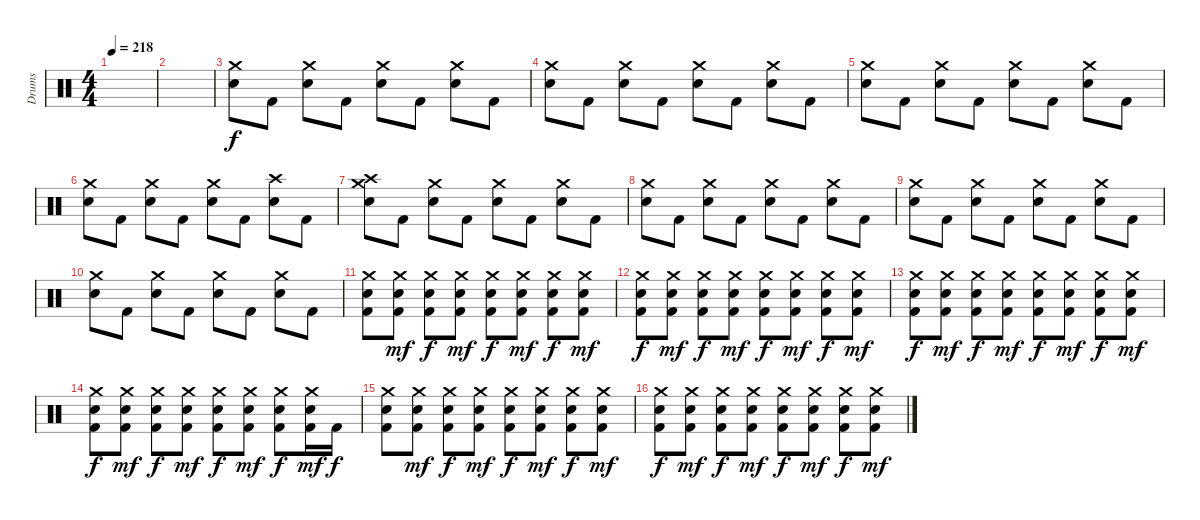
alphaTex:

\track ("Drums" "Drums") {instrument percussion}
\staff {score}
\articulation defaults
\ts (4 4)
\tempo 218
\clef neutral
\ks c
|
|
("Crash medium (hit)" "Electric Snare (hit)").8 "Kick (hit) 2".8 ("Crash medium (hit)" "Electric Snare (hit)").8 "Kick (hit) 2".8 ("Crash medium (hit)" "Electric Snare (hit)").8 "Kick (hit) 2".8 ("Crash medium (hit)" "Electric Snare (hit)").8 "Kick (hit) 2".8 |
("Crash medium (hit)" "Electric Snare (hit)").8 "Kick (hit) 2".8 ("Crash medium (hit)" "Electric Snare (hit)").8 "Kick (hit) 2".8 ("Crash medium (hit)" "Electric Snare (hit)").8 "Kick (hit) 2".8 ("Crash medium (hit)" "Electric Snare (hit)").8 "Kick (hit) 2".8 |
("Crash medium (hit)" "Electric Snare (hit)").8 "Kick (hit) 2".8 ("Crash medium (hit)" "Electric Snare (hit)").8 "Kick (hit) 2".8 ("Crash medium (hit)" "Electric Snare (hit)").8 "Kick (hit) 2".8 ("Crash medium (hit)" "Electric Snare (hit)").8 "Kick (hit) 2".8 |
("Crash medium (hit)" "Electric Snare (hit)").8 "Kick (hit) 2".8 ("Crash medium (hit)" "Electric Snare (hit)").8 "Kick (hit) 2".8 ("Crash medium (hit)" "Electric Snare (hit)").8 "Kick (hit) 2".8 ("Crash high (hit)" "Electric Snare (hit)").8 "Kick (hit) 2".8 |
("Crash medium (hit)" "Crash high (hit)" "Electric Snare (hit)").8 "Kick (hit) 2".8 ("Crash medium (hit)" "Electric Snare (hit)").8 "Kick (hit) 2".8 ("Crash medium (hit)" "Electric Snare (hit)").8 "Kick (hit) 2".8 ("Crash medium (hit)" "Electric Snare (hit)").8 "Kick (hit) 2".8 |
("Crash medium (hit)" "Electric Snare (hit)").8 "Kick (hit) 2".8 ("Crash medium (hit)" "Electric Snare (hit)").8 "Kick (hit) 2".8 ("Crash medium (hit)" "Electric Snare (hit)").8 "Kick (hit) 2".8 ("Crash medium (hit)" "Electric Snare (hit)").8 "Kick (hit) 2".8 |
("Crash medium (hit)" "Electric Snare (hit)").8 "Kick (hit) 2".8 ("Crash medium (hit)" "Electric Snare (hit)").8 "Kick (hit) 2".8 ("Crash medium (hit)" "Electric Snare (hit)").8 "Kick (hit) 2".8 ("Crash medium (hit)" "Electric Snare (hit)").8 "Kick (hit) 2".8 |
("Crash medium (hit)" "Electric Snare (hit)").8 "Kick (hit) 2".8 ("Crash medium (hit)" "Electric Snare (hit)").8 "Kick (hit) 2".8 ("Crash medium (hit)" "Electric Snare (hit)").8 "Kick (hit) 2".8 ("Crash medium (hit)" "Electric Snare (hit)").8 "Kick (hit) 2".8 |
("Crash medium (hit)" "Electric Snare (hit)" "Kick (hit) 2").8 ("Crash medium (hit)" "Electric Snare (hit)" "Kick (hit) 2").8{dy mf} ("Crash medium (hit)" "Electric Snare (hit)" "Kick (hit) 2").8{dy f} ("Crash medium (hit)" "Electric Snare (hit)" "Kick (hit) 2").8{dy mf} ("Crash medium (hit)" "Electric Snare (hit)" "Kick (hit) 2").8{dy f} ("Crash medium (hit)" "Electric Snare (hit)" "Kick (hit) 2").8{dy mf} ("Crash medium (hit)" "Electric Snare (hit)" "Kick (hit) 2").8{dy f} ("Crash medium (hit)" "Electric Snare (hit)" "Kick (hit) 2").8{dy mf} |
("Crash medium (hit)" "Electric Snare (hit)" "Kick (hit) 2").8{dy f} ("Crash medium (hit)" "Electric Snare (hit)" "Kick (hit) 2").8{dy mf} ("Crash medium (hit)" "Electric Snare (hit)" "Kick (hit) 2").8{dy f} ("Crash medium (hit)" "Electric Snare (hit)" "Kick (hit) 2").8{dy mf} ("Crash medium (hit)" "Electric Snare (hit)" "Kick (hit) 2").8{dy f} ("Crash medium (hit)" "Electric Snare (hit)" "Kick (hit) 2").8{dy mf} ("Crash medium (hit)" "Electric Snare (hit)" "Kick (hit) 2").8{dy f} ("Crash medium (hit)" "Electric Snare (hit)" "Kick (hit) 2").8{dy mf} |
("Crash medium (hit)" "Electric Snare (hit)" "Kick (hit) 2").8{dy f} ("Crash medium (hit)" "Electric Snare (hit)" "Kick (hit) 2").8{dy mf} ("Crash medium (hit)" "Electric Snare (hit)" "Kick (hit) 2").8{dy f} ("Crash medium (hit)" "Electric Snare (hit)" "Kick (hit) 2").8{dy mf} ("Crash medium (hit)" "Electric Snare (hit)" "Kick (hit) 2").8{dy f} ("Crash medium (hit)" "Electric Snare (hit)" "Kick (hit) 2").8{dy mf} ("Crash medium (hit)" "Electric Snare (hit)" "Kick (hit) 2").8{dy f} ("Crash medium (hit)" "Electric Snare (hit)" "Kick (hit) 2").8{dy mf} |
("Crash medium (hit)" "Electric Snare (hit)" "Kick (hit) 2").8{dy f} ("Crash medium (hit)" "Electric Snare (hit)" "Kick (hit) 2").8{dy mf} ("Crash medium (hit)" "Electric Snare (hit)" "Kick (hit) 2").8{dy f} ("Crash medium (hit)" "Electric Snare (hit)" "Kick (hit) 2").8{dy mf} ("Crash medium (hit)" "Electric Snare (hit)" "Kick (hit) 2").8{dy f} ("Crash medium (hit)" "Electric Snare (hit)" "Kick (hit) 2").8{dy mf} ("Crash medium (hit)" "Electric Snare (hit)" "Kick (hit) 2").8{dy f} ("Crash medium (hit)" "Electric Snare (hit)" "Kick (hit) 2").16{dy mf} "Kick (hit) 2".16{dy f} |
("Crash medium (hit)" "Electric Snare (hit)" "Kick (hit) 2").8 ("Crash medium (hit)" "Electric Snare (hit)" "Kick (hit) 2").8{dy mf} ("Crash medium (hit)" "Electric Snare (hit)" "Kick (hit) 2").8{dy f} ("Crash medium (hit)" "Electric Snare (hit)" "Kick (hit) 2").8{dy mf} ("Crash medium (hit)" "Electric Snare (hit)" "Kick (hit) 2").8{dy f} ("Crash medium (hit)" "Electric Snare (hit)" "Kick (hit) 2").8{dy mf} ("Crash medium (hit)" "Electric Snare (hit)" "Kick (hit) 2").8{dy f} ("Crash medium (hit)" "Electric Snare (hit)" "Kick (hit) 2").8{dy mf} |
("Crash medium (hit)" "Electric Snare (hit)" "Kick (hit) 2").8{dy f} ("Crash medium (hit)" "Electric Snare (hit)" "Kick (hit) 2").8{dy mf} ("Crash medium (hit)" "Electric Snare (hit)" "Kick (hit) 2").8{dy f} ("Crash medium (hit)" "Electric Snare (hit)" "Kick (hit) 2").8{dy mf} ("Crash medium (hit)" "Electric Snare (hit)" "Kick (hit) 2").8{dy f} ("Crash medium (hit)" "Electric Snare (hit)" "Kick (hit) 2").8{dy mf} ("Crash medium (hit)" "Electric Snare (hit)" "Kick (hit) 2").8{dy f} ("Crash medium (hit)" "Electric Snare (hit)" "Kick (hit) 2").8{dy mf}
